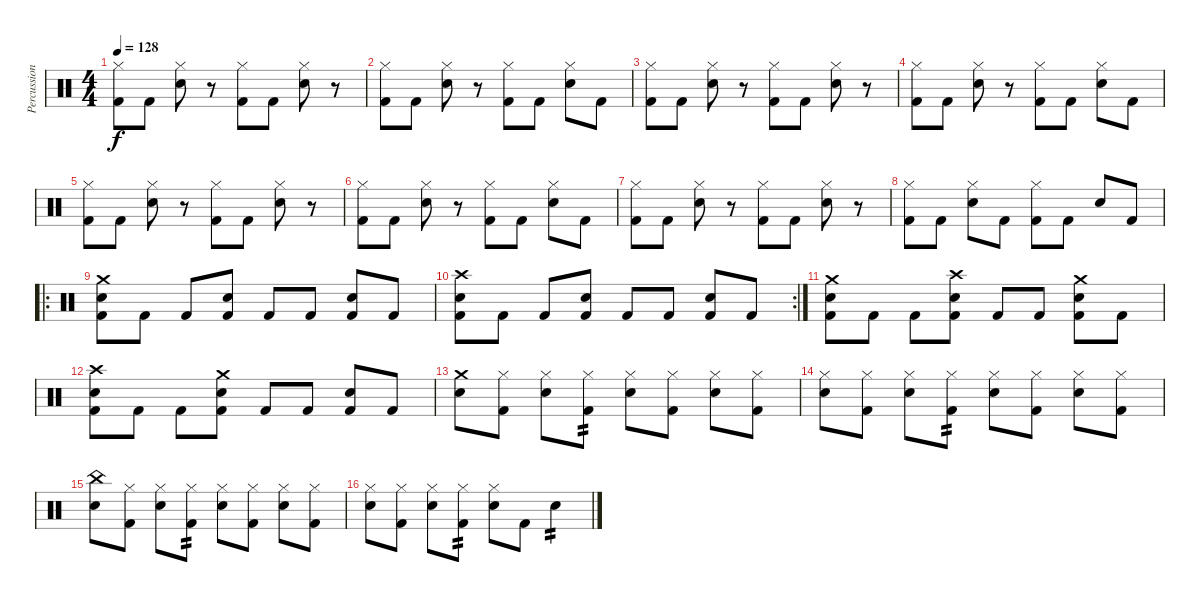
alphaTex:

\track ("Percussion" "Percussion") {instrument percussion}
\staff {score}
\articulation defaults
\ts (4 4)
\tempo 128
\clef neutral
\ks c
("Hi-Hat (closed)" "Kick (hit) 2").8{dy f} "Kick (hit) 2".8 ("Hi-Hat (closed)" "Snare (hit) 2").8 r.8 ("Hi-Hat (closed)" "Kick (hit) 2").8 "Kick (hit) 2".8 ("Hi-Hat (closed)" "Snare (hit) 2").8 r.8 |
("Hi-Hat (closed)" "Kick (hit) 2").8 "Kick (hit) 2".8 ("Hi-Hat (closed)" "Snare (hit) 2").8 r.8 ("Hi-Hat (closed)" "Kick (hit) 2").8 "Kick (hit) 2".8 ("Hi-Hat (closed)" "Snare (hit) 2").8 "Kick (hit) 2".8 |
("Hi-Hat (closed)" "Kick (hit) 2").8 "Kick (hit) 2".8 ("Hi-Hat (closed)" "Snare (hit) 2").8 r.8 ("Hi-Hat (closed)" "Kick (hit) 2").8 "Kick (hit) 2".8 ("Hi-Hat (closed)" "Snare (hit) 2").8 r.8 |
("Hi-Hat (closed)" "Kick (hit) 2").8 "Kick (hit) 2".8 ("Hi-Hat (closed)" "Snare (hit) 2").8 r.8 ("Hi-Hat (closed)" "Kick (hit) 2").8 "Kick (hit) 2".8 ("Hi-Hat (closed)" "Snare (hit) 2").8 "Kick (hit) 2".8 |
("Hi-Hat (closed)" "Kick (hit) 2").8 "Kick (hit) 2".8 ("Hi-Hat (closed)" "Snare (hit) 2").8 r.8 ("Hi-Hat (closed)" "Kick (hit) 2").8 "Kick (hit) 2".8 ("Hi-Hat (closed)" "Snare (hit) 2").8 r.8 |
("Hi-Hat (closed)" "Kick (hit) 2").8 "Kick (hit) 2".8 ("Hi-Hat (closed)" "Snare (hit) 2").8 r.8 ("Hi-Hat (closed)" "Kick (hit) 2").8 "Kick (hit) 2".8 ("Hi-Hat (closed)" "Snare (hit) 2").8 "Kick (hit) 2".8 |
("Hi-Hat (closed)" "Kick (hit) 2").8 "Kick (hit) 2".8 ("Hi-Hat (closed)" "Snare (hit) 2").8 r.8 ("Hi-Hat (closed)" "Kick (hit) 2").8 "Kick (hit) 2".8 ("Hi-Hat (closed)" "Snare (hit) 2").8 r.8 |
("Hi-Hat (closed)" "Kick (hit) 2").8 "Kick (hit) 2".8 ("Hi-Hat (closed)" "Snare (hit) 2").8 "Kick (hit) 2".8 ("Hi-Hat (closed)" "Kick (hit) 2").8 "Kick (hit) 2".8 "Snare (hit) 2".8 "Kick (hit) 2".8 |
\ro
("Crash medium (hit)" "Snare (hit) 2" "Kick (hit) 2").8 "Kick (hit) 2".8 "Kick (hit) 2".8 ("Snare (hit) 2" "Kick (hit) 2").8 "Kick (hit) 2".8 "Kick (hit) 2".8 ("Snare (hit) 2" "Kick (hit) 2").8 "Kick (hit) 2".8 |
\rc 2
("Crash high (hit)" "Snare (hit) 2" "Kick (hit) 2").8 "Kick (hit) 2".8 "Kick (hit) 2".8 ("Snare (hit) 2" "Kick (hit) 2").8 "Kick (hit) 2".8 "Kick (hit) 2".8 ("Snare (hit) 2" "Kick (hit) 2").8 "Kick (hit) 2".8 |
("Crash medium (hit)" "Snare (hit) 2" "Kick (hit) 2").8 "Kick (hit) 2".8 "Kick (hit) 2".8 ("Crash high (hit)" "Snare (hit) 2" "Kick (hit) 2").8 "Kick (hit) 2".8 "Kick (hit) 2".8 ("Crash medium (hit)" "Snare (hit) 2" "Kick (hit) 2").8 "Kick (hit) 2".8 |
("Crash high (hit)" "Snare (hit) 2" "Kick (hit) 2").8 "Kick (hit) 2".8 "Kick (hit) 2".8 ("Crash medium (hit)" "Snare (hit) 2" "Kick (hit) 2").8 "Kick (hit) 2".8 "Kick (hit) 2".8 ("Snare (hit) 2" "Kick (hit) 2").8 "Kick (hit) 2".8 |
("Crash medium (hit)" "Snare (hit) 2").8 ("Hi-Hat (closed)" "Kick (hit) 2").8 ("Hi-Hat (closed)" "Snare (hit) 2").8 ("Hi-Hat (closed)" "Kick (hit) 2").8{tp 2} ("Hi-Hat (closed)" "Snare (hit) 2").8 ("Hi-Hat (closed)" "Kick (hit) 2").8 ("Hi-Hat (closed)" "Snare (hit) 2").8 ("Hi-Hat (closed)" "Kick (hit) 2").8 |
("Hi-Hat (closed)" "Snare (hit) 2").8 ("Hi-Hat (closed)" "Kick (hit) 2").8 ("Hi-Hat (closed)" "Snare (hit) 2").8 ("Hi-Hat (closed)" "Kick (hit) 2").8{tp 2} ("Hi-Hat (closed)" "Snare (hit) 2").8 ("Hi-Hat (closed)" "Kick (hit) 2").8 ("Hi-Hat (closed)" "Snare (hit) 2").8 ("Hi-Hat (closed)" "Kick (hit) 2").8 |
("China (hit)" "Snare (hit) 2").8 ("Hi-Hat (closed)" "Kick (hit) 2").8 ("Hi-Hat (closed)" "Snare (hit) 2").8 ("Hi-Hat (closed)" "Kick (hit) 2").8{tp 2} ("Hi-Hat (closed)" "Snare (hit) 2").8 ("Hi-Hat (closed)" "Kick (hit) 2").8 ("Hi-Hat (closed)" "Snare (hit) 2").8 ("Hi-Hat (closed)" "Kick (hit) 2").8 |
("Hi-Hat (closed)" "Snare (hit) 2").8 ("Hi-Hat (closed)" "Kick (hit) 2").8 ("Hi-Hat (closed)" "Snare (hit) 2").8 ("Hi-Hat (closed)" "Kick (hit) 2").8{tp 2} ("Hi-Hat (closed)" "Snare (hit) 2").8 "Kick (hit) 2".8 "Snare (hit) 2".4{tp 2}
